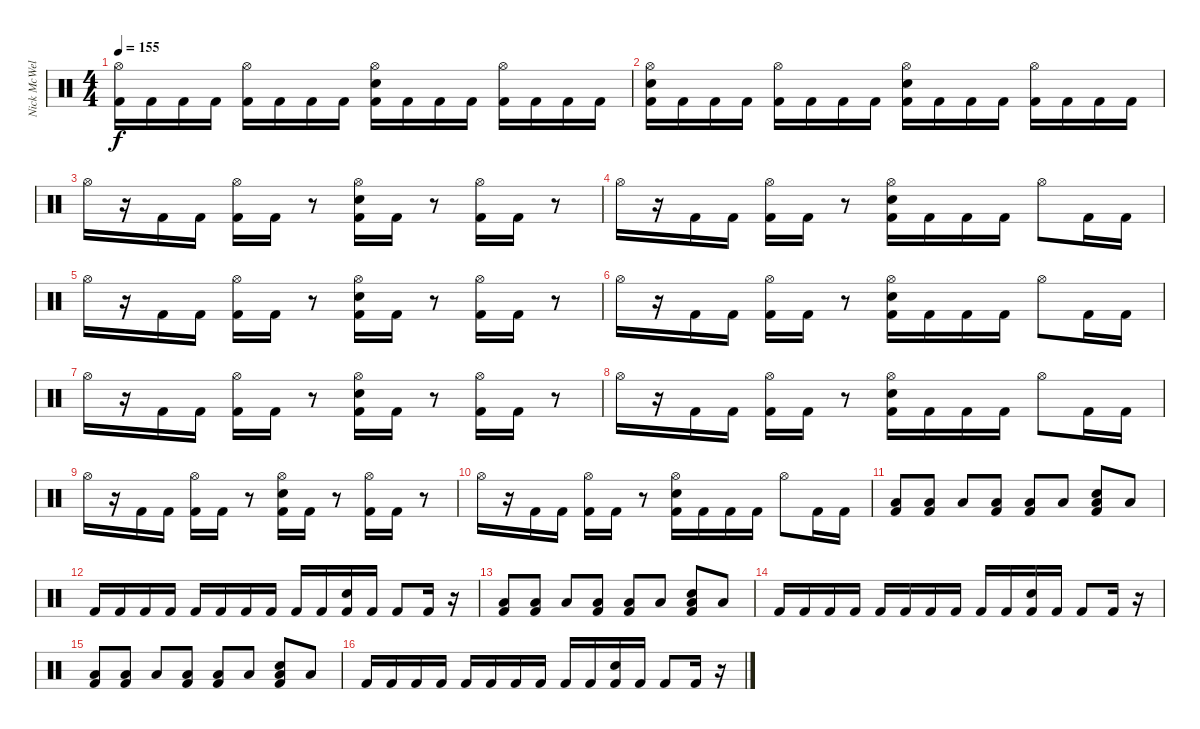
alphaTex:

\track ("Nick McWells" "Nick McWel") {instrument percussion}
\staff {score}
\articulation defaults
\ts (4 4)
\tempo 155
\clef neutral
\ks c
("Hi-Hat (open)" "Kick (hit) 2").16{dy f} "Kick (hit) 2".16 "Kick (hit) 2".16 "Kick (hit) 2".16 ("Hi-Hat (open)" "Kick (hit) 2").16 "Kick (hit) 2".16 "Kick (hit) 2".16 "Kick (hit) 2".16 ("Hi-Hat (open)" "Electric Snare (hit)" "Kick (hit) 2").16 "Kick (hit) 2".16 "Kick (hit) 2".16 "Kick (hit) 2".16 ("Hi-Hat (open)" "Kick (hit) 2").16 "Kick (hit) 2".16 "Kick (hit) 2".16 "Kick (hit) 2".16 |
("Hi-Hat (open)" "Electric Snare (hit)" "Kick (hit) 2").16 "Kick (hit) 2".16 "Kick (hit) 2".16 "Kick (hit) 2".16 ("Hi-Hat (open)" "Kick (hit) 2").16 "Kick (hit) 2".16 "Kick (hit) 2".16 "Kick (hit) 2".16 ("Hi-Hat (open)" "Electric Snare (hit)" "Kick (hit) 2").16 "Kick (hit) 2".16 "Kick (hit) 2".16 "Kick (hit) 2".16 ("Hi-Hat (open)" "Kick (hit) 2").16 "Kick (hit) 2".16 "Kick (hit) 2".16 "Kick (hit) 2".16 |
"Hi-Hat (open)".16 r.16 "Kick (hit) 2".16 "Kick (hit) 2".16 ("Hi-Hat (open)" "Kick (hit) 2").16 "Kick (hit) 2".16 r.8 ("Hi-Hat (open)" "Electric Snare (hit)" "Kick (hit) 2").16 "Kick (hit) 2".16 r.8 ("Hi-Hat (open)" "Kick (hit) 2").16 "Kick (hit) 2".16 r.8 |
"Hi-Hat (open)".16 r.16 "Kick (hit) 2".16 "Kick (hit) 2".16 ("Hi-Hat (open)" "Kick (hit) 2").16 "Kick (hit) 2".16 r.8 ("Hi-Hat (open)" "Electric Snare (hit)" "Kick (hit) 2").16 "Kick (hit) 2".16 "Kick (hit) 2".16 "Kick (hit) 2".16 "Hi-Hat (open)".8 "Kick (hit) 2".16 "Kick (hit) 2".16 |
"Hi-Hat (open)".16 r.16 "Kick (hit) 2".16 "Kick (hit) 2".16 ("Hi-Hat (open)" "Kick (hit) 2").16 "Kick (hit) 2".16 r.8 ("Hi-Hat (open)" "Electric Snare (hit)" "Kick (hit) 2").16 "Kick (hit) 2".16 r.8 ("Hi-Hat (open)" "Kick (hit) 2").16 "Kick (hit) 2".16 r.8 |
"Hi-Hat (open)".16 r.16 "Kick (hit) 2".16 "Kick (hit) 2".16 ("Hi-Hat (open)" "Kick (hit) 2").16 "Kick (hit) 2".16 r.8 ("Hi-Hat (open)" "Electric Snare (hit)" "Kick (hit) 2").16 "Kick (hit) 2".16 "Kick (hit) 2".16 "Kick (hit) 2".16 "Hi-Hat (open)".8 "Kick (hit) 2".16 "Kick (hit) 2".16 |
"Hi-Hat (open)".16 r.16 "Kick (hit) 2".16 "Kick (hit) 2".16 ("Hi-Hat (open)" "Kick (hit) 2").16 "Kick (hit) 2".16 r.8 ("Hi-Hat (open)" "Electric Snare (hit)" "Kick (hit) 2").16 "Kick (hit) 2".16 r.8 ("Hi-Hat (open)" "Kick (hit) 2").16 "Kick (hit) 2".16 r.8 |
"Hi-Hat (open)".16 r.16 "Kick (hit) 2".16 "Kick (hit) 2".16 ("Hi-Hat (open)" "Kick (hit) 2").16 "Kick (hit) 2".16 r.8 ("Hi-Hat (open)" "Electric Snare (hit)" "Kick (hit) 2").16 "Kick (hit) 2".16 "Kick (hit) 2".16 "Kick (hit) 2".16 "Hi-Hat (open)".8 "Kick (hit) 2".16 "Kick (hit) 2".16 |
"Hi-Hat (open)".16 r.16 "Kick (hit) 2".16 "Kick (hit) 2".16 ("Hi-Hat (open)" "Kick (hit) 2").16 "Kick (hit) 2".16 r.8 ("Hi-Hat (open)" "Electric Snare (hit)" "Kick (hit) 2").16 "Kick (hit) 2".16 r.8 ("Hi-Hat (open)" "Kick (hit) 2").16 "Kick (hit) 2".16 r.8 |
"Hi-Hat (open)".16 r.16 "Kick (hit) 2".16 "Kick (hit) 2".16 ("Hi-Hat (open)" "Kick (hit) 2").16 "Kick (hit) 2".16 r.8 ("Hi-Hat (open)" "Electric Snare (hit)" "Kick (hit) 2").16 "Kick (hit) 2".16 "Kick (hit) 2".16 "Kick (hit) 2".16 "Hi-Hat (open)".8 "Kick (hit) 2".16 "Kick (hit) 2".16 |
("Low Tom (hit)" "Kick (hit) 2").8 ("Low Tom (hit)" "Kick (hit) 2").8 "Low Tom (hit)".8 ("Low Tom (hit)" "Kick (hit) 2").8 ("Low Tom (hit)" "Kick (hit) 2").8 "Low Tom (hit)".8 ("Electric Snare (hit)" "Low Tom (hit)" "Kick (hit) 2").8 "Low Tom (hit)".8 |
"Kick (hit) 2".16 "Kick (hit) 2".16 "Kick (hit) 2".16 "Kick (hit) 2".16 "Kick (hit) 2".16 "Kick (hit) 2".16 "Kick (hit) 2".16 "Kick (hit) 2".16 "Kick (hit) 2".16 "Kick (hit) 2".16 ("Electric Snare (hit)" "Kick (hit) 2").16 "Kick (hit) 2".16 "Kick (hit) 2".8 "Kick (hit) 2".16 r.16 |
("Low Tom (hit)" "Kick (hit) 2").8 ("Low Tom (hit)" "Kick (hit) 2").8 "Low Tom (hit)".8 ("Low Tom (hit)" "Kick (hit) 2").8 ("Low Tom (hit)" "Kick (hit) 2").8 "Low Tom (hit)".8 ("Electric Snare (hit)" "Low Tom (hit)" "Kick (hit) 2").8 "Low Tom (hit)".8 |
"Kick (hit) 2".16 "Kick (hit) 2".16 "Kick (hit) 2".16 "Kick (hit) 2".16 "Kick (hit) 2".16 "Kick (hit) 2".16 "Kick (hit) 2".16 "Kick (hit) 2".16 "Kick (hit) 2".16 "Kick (hit) 2".16 ("Electric Snare (hit)" "Kick (hit) 2").16 "Kick (hit) 2".16 "Kick (hit) 2".8 "Kick (hit) 2".16 r.16 |
("Low Tom (hit)" "Kick (hit) 2").8 ("Low Tom (hit)" "Kick (hit) 2").8 "Low Tom (hit)".8 ("Low Tom (hit)" "Kick (hit) 2").8 ("Low Tom (hit)" "Kick (hit) 2").8 "Low Tom (hit)".8 ("Electric Snare (hit)" "Low Tom (hit)" "Kick (hit) 2").8 "Low Tom (hit)".8 |
"Kick (hit) 2".16 "Kick (hit) 2".16 "Kick (hit) 2".16 "Kick (hit) 2".16 "Kick (hit) 2".16 "Kick (hit) 2".16 "Kick (hit) 2".16 "Kick (hit) 2".16 "Kick (hit) 2".16 "Kick (hit) 2".16 ("Electric Snare (hit)" "Kick (hit) 2").16 "Kick (hit) 2".16 "Kick (hit) 2".8 "Kick (hit) 2".16 r.16
